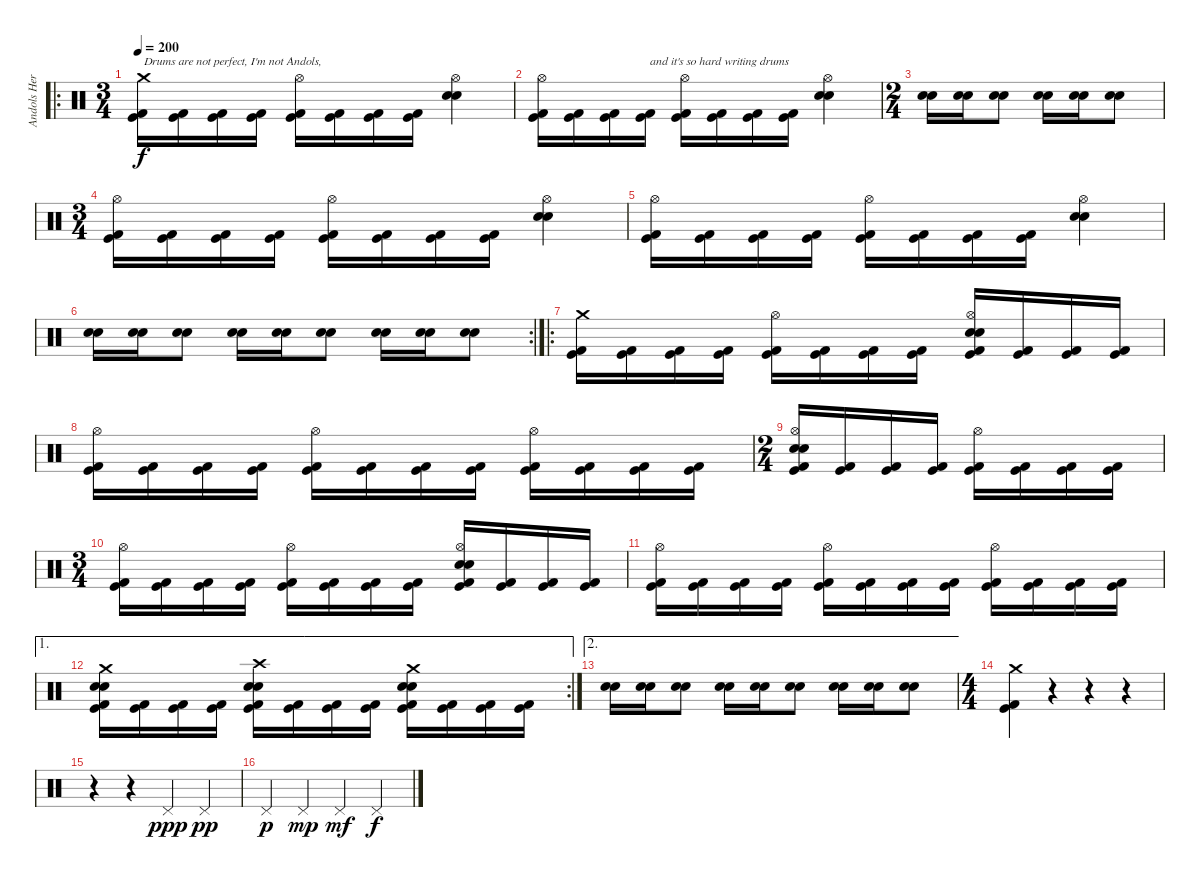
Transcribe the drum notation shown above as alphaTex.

\track ("Andols Herrick" "Andols Her") {instrument percussion}
\staff {score}
\articulation defaults
\ro
\ts (3 4)
\tempo 200
\clef neutral
\ks c
("Crash medium (hit)" "Kick (hit) 2" "Kick (hit)").16{txt "Drums are not perfect, I'm not Andols, " dy f} ("Kick (hit) 2" "Kick (hit)").16 ("Kick (hit) 2" "Kick (hit)").16 ("Kick (hit) 2" "Kick (hit)").16 ("Hi-Hat (open)" "Kick (hit) 2" "Kick (hit)").16 ("Kick (hit) 2" "Kick (hit)").16 ("Kick (hit) 2" "Kick (hit)").16 ("Kick (hit) 2" "Kick (hit)").16 ("Hi-Hat (open)" "Electric Snare (hit)" "Snare (hit) 2").4 |
("Hi-Hat (open)" "Kick (hit) 2" "Kick (hit)").16 ("Kick (hit) 2" "Kick (hit)").16 ("Kick (hit) 2" "Kick (hit)").16 ("Kick (hit) 2" "Kick (hit)").16{txt "and it's so hard writing drums"} ("Hi-Hat (open)" "Kick (hit) 2" "Kick (hit)").16 ("Kick (hit) 2" "Kick (hit)").16 ("Kick (hit) 2" "Kick (hit)").16 ("Kick (hit) 2" "Kick (hit)").16 ("Hi-Hat (open)" "Electric Snare (hit)" "Snare (hit) 2").4 |
\ts (2 4)
("Electric Snare (hit)" "Snare (hit) 2").16 ("Electric Snare (hit)" "Snare (hit) 2").16 ("Electric Snare (hit)" "Snare (hit) 2").8 ("Electric Snare (hit)" "Snare (hit) 2").16 ("Electric Snare (hit)" "Snare (hit) 2").16 ("Electric Snare (hit)" "Snare (hit) 2").8 |
\ts (3 4)
("Hi-Hat (open)" "Kick (hit) 2" "Kick (hit)").16 ("Kick (hit) 2" "Kick (hit)").16 ("Kick (hit) 2" "Kick (hit)").16 ("Kick (hit) 2" "Kick (hit)").16 ("Hi-Hat (open)" "Kick (hit) 2" "Kick (hit)").16 ("Kick (hit) 2" "Kick (hit)").16 ("Kick (hit) 2" "Kick (hit)").16 ("Kick (hit) 2" "Kick (hit)").16 ("Hi-Hat (open)" "Electric Snare (hit)" "Snare (hit) 2").4 |
("Hi-Hat (open)" "Kick (hit) 2" "Kick (hit)").16 ("Kick (hit) 2" "Kick (hit)").16 ("Kick (hit) 2" "Kick (hit)").16 ("Kick (hit) 2" "Kick (hit)").16 ("Hi-Hat (open)" "Kick (hit) 2" "Kick (hit)").16 ("Kick (hit) 2" "Kick (hit)").16 ("Kick (hit) 2" "Kick (hit)").16 ("Kick (hit) 2" "Kick (hit)").16 ("Hi-Hat (open)" "Electric Snare (hit)" "Snare (hit) 2").4 |
\rc 2
("Electric Snare (hit)" "Snare (hit) 2").16 ("Electric Snare (hit)" "Snare (hit) 2").16 ("Electric Snare (hit)" "Snare (hit) 2").8 ("Electric Snare (hit)" "Snare (hit) 2").16 ("Electric Snare (hit)" "Snare (hit) 2").16 ("Electric Snare (hit)" "Snare (hit) 2").8 ("Electric Snare (hit)" "Snare (hit) 2").16 ("Electric Snare (hit)" "Snare (hit) 2").16 ("Electric Snare (hit)" "Snare (hit) 2").8 |
\ro
("Crash medium (hit)" "Kick (hit) 2" "Kick (hit)").16 ("Kick (hit) 2" "Kick (hit)").16 ("Kick (hit) 2" "Kick (hit)").16 ("Kick (hit) 2" "Kick (hit)").16 ("Hi-Hat (open)" "Kick (hit) 2" "Kick (hit)").16 ("Kick (hit) 2" "Kick (hit)").16 ("Kick (hit) 2" "Kick (hit)").16 ("Kick (hit) 2" "Kick (hit)").16 ("Hi-Hat (open)" "Electric Snare (hit)" "Snare (hit) 2" "Kick (hit) 2" "Kick (hit)").16 ("Kick (hit) 2" "Kick (hit)").16 ("Kick (hit) 2" "Kick (hit)").16 ("Kick (hit) 2" "Kick (hit)").16 |
("Hi-Hat (open)" "Kick (hit) 2" "Kick (hit)").16 ("Kick (hit) 2" "Kick (hit)").16 ("Kick (hit) 2" "Kick (hit)").16 ("Kick (hit) 2" "Kick (hit)").16 ("Hi-Hat (open)" "Kick (hit) 2" "Kick (hit)").16 ("Kick (hit) 2" "Kick (hit)").16 ("Kick (hit) 2" "Kick (hit)").16 ("Kick (hit) 2" "Kick (hit)").16 ("Hi-Hat (open)" "Kick (hit) 2" "Kick (hit)").16 ("Kick (hit) 2" "Kick (hit)").16 ("Kick (hit) 2" "Kick (hit)").16 ("Kick (hit) 2" "Kick (hit)").16 |
\ts (2 4)
("Hi-Hat (open)" "Electric Snare (hit)" "Snare (hit) 2" "Kick (hit) 2" "Kick (hit)").16 ("Kick (hit) 2" "Kick (hit)").16 ("Kick (hit) 2" "Kick (hit)").16 ("Kick (hit) 2" "Kick (hit)").16 ("Hi-Hat (open)" "Kick (hit) 2" "Kick (hit)").16 ("Kick (hit) 2" "Kick (hit)").16 ("Kick (hit) 2" "Kick (hit)").16 ("Kick (hit) 2" "Kick (hit)").16 |
\ts (3 4)
("Hi-Hat (open)" "Kick (hit) 2" "Kick (hit)").16 ("Kick (hit) 2" "Kick (hit)").16 ("Kick (hit) 2" "Kick (hit)").16 ("Kick (hit) 2" "Kick (hit)").16 ("Hi-Hat (open)" "Kick (hit) 2" "Kick (hit)").16 ("Kick (hit) 2" "Kick (hit)").16 ("Kick (hit) 2" "Kick (hit)").16 ("Kick (hit) 2" "Kick (hit)").16 ("Hi-Hat (open)" "Electric Snare (hit)" "Snare (hit) 2" "Kick (hit) 2" "Kick (hit)").16 ("Kick (hit) 2" "Kick (hit)").16 ("Kick (hit) 2" "Kick (hit)").16 ("Kick (hit) 2" "Kick (hit)").16 |
("Hi-Hat (open)" "Kick (hit) 2" "Kick (hit)").16 ("Kick (hit) 2" "Kick (hit)").16 ("Kick (hit) 2" "Kick (hit)").16 ("Kick (hit) 2" "Kick (hit)").16 ("Hi-Hat (open)" "Kick (hit) 2" "Kick (hit)").16 ("Kick (hit) 2" "Kick (hit)").16 ("Kick (hit) 2" "Kick (hit)").16 ("Kick (hit) 2" "Kick (hit)").16 ("Hi-Hat (open)" "Kick (hit) 2" "Kick (hit)").16 ("Kick (hit) 2" "Kick (hit)").16 ("Kick (hit) 2" "Kick (hit)").16 ("Kick (hit) 2" "Kick (hit)").16 |
\ae 1
\rc 2
("Crash medium (hit)" "Electric Snare (hit)" "Snare (hit) 2" "Kick (hit) 2" "Kick (hit)").16 ("Kick (hit) 2" "Kick (hit)").16 ("Kick (hit) 2" "Kick (hit)").16 ("Kick (hit) 2" "Kick (hit)").16 ("Crash high (hit)" "Electric Snare (hit)" "Snare (hit) 2" "Kick (hit) 2" "Kick (hit)").16 ("Kick (hit) 2" "Kick (hit)").16 ("Kick (hit) 2" "Kick (hit)").16 ("Kick (hit) 2" "Kick (hit)").16 ("Crash medium (hit)" "Electric Snare (hit)" "Snare (hit) 2" "Kick (hit) 2" "Kick (hit)").16 ("Kick (hit) 2" "Kick (hit)").16 ("Kick (hit) 2" "Kick (hit)").16 ("Kick (hit) 2" "Kick (hit)").16 |
\ae 2
("Electric Snare (hit)" "Snare (hit) 2").16 ("Electric Snare (hit)" "Snare (hit) 2").16 ("Electric Snare (hit)" "Snare (hit) 2").8 ("Electric Snare (hit)" "Snare (hit) 2").16 ("Electric Snare (hit)" "Snare (hit) 2").16 ("Electric Snare (hit)" "Snare (hit) 2").8 ("Electric Snare (hit)" "Snare (hit) 2").16 ("Electric Snare (hit)" "Snare (hit) 2").16 ("Electric Snare (hit)" "Snare (hit) 2").8 |
\ts (4 4)
("Crash medium (hit)" "Kick (hit) 2" "Kick (hit)").4 r.4 r.4 r.4 |
r.4 r.4 "Pedal Hi-Hat (hit)".4{dy ppp} "Pedal Hi-Hat (hit)".4{dy pp} |
"Pedal Hi-Hat (hit)".4{dy p} "Pedal Hi-Hat (hit)".4{dy mp} "Pedal Hi-Hat (hit)".4{dy mf} "Pedal Hi-Hat (hit)".4{dy f}
